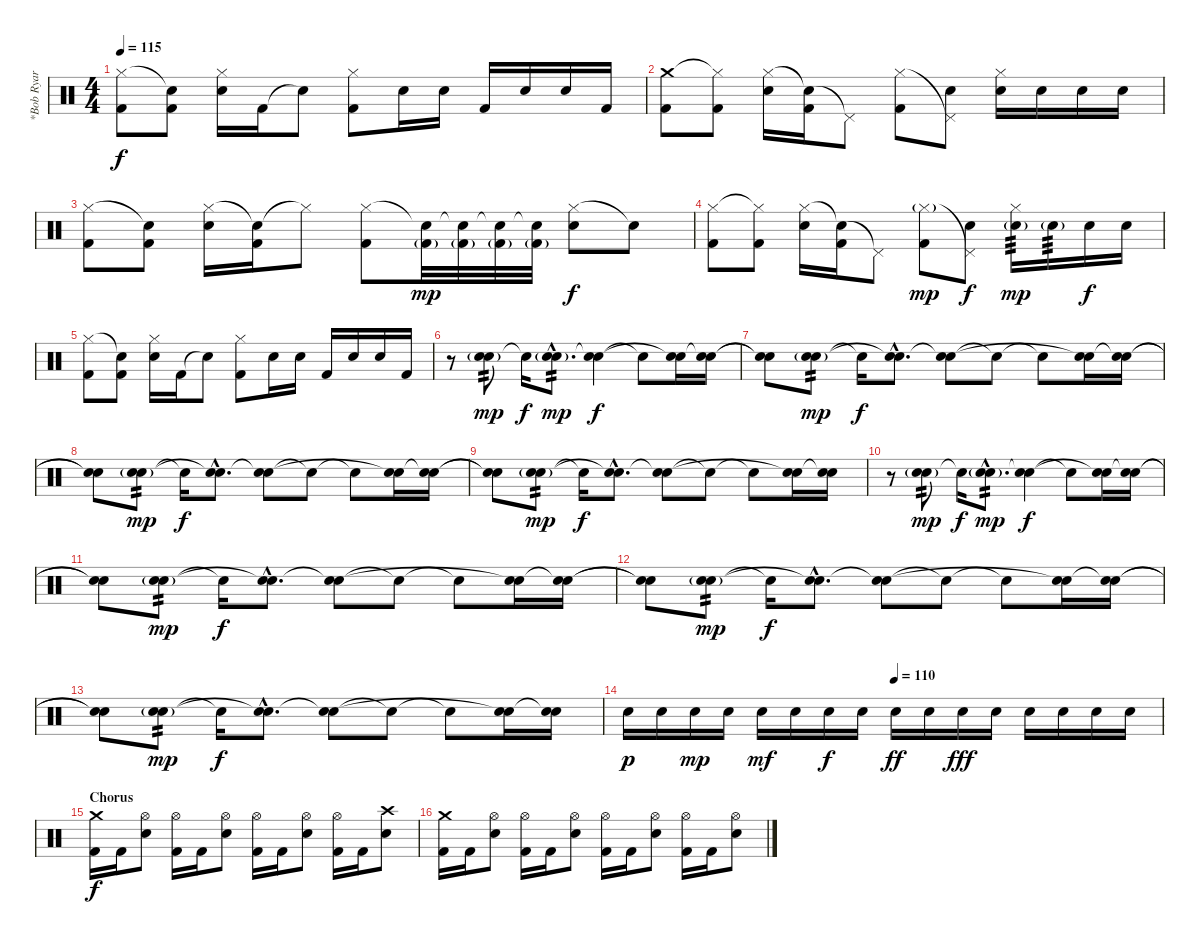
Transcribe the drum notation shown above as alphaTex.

\track ("*Bob Ryar (Drums)" "*Bob Ryar ") {instrument percussion}
\staff {score}
\articulation defaults
\ts (4 4)
\tempo 115
\clef neutral
\ks c
("Hi-Hat (closed)" "Kick (hit) 2").8{dy f} ("Snare (hit)"{t} "Kick (hit) 2").8 ("Hi-Hat (closed)" "Electric Snare (hit)").16 "Kick (hit) 2".16 "Snare (hit)"{t}.8 ("Hi-Hat (closed)" "Kick (hit) 2").8 "Electric Snare (hit)".16 "Electric Snare (hit)".16 "Kick (hit) 2".16 "Electric Snare (hit)".16 "Electric Snare (hit)".16 "Kick (hit) 2".16 |
("Crash medium (hit)" "Kick (hit) 2").8 ("Hi-Hat (closed)"{t} "Kick (hit) 2").8 ("Hi-Hat (closed)" "Electric Snare (hit)").16 ("Snare (hit)"{t} "Kick (hit) 2").16 "Pedal Hi-Hat (hit)"{t}.8 ("Hi-Hat (closed)" "Kick (hit) 2").8 ("Pedal Hi-Hat (hit)"{t} "Electric Snare (hit)").8 ("Hi-Hat (closed)" "Electric Snare (hit)").16 "Electric Snare (hit)".16 "Electric Snare (hit)".16 "Electric Snare (hit)".16 |
("Hi-Hat (closed)" "Kick (hit) 2").8 ("Snare (hit)"{t} "Kick (hit) 2").8 ("Hi-Hat (closed)" "Electric Snare (hit)").16 ("Snare (hit)"{t} "Kick (hit) 2").16 "Hi-Hat (closed)"{t}.8 ("Hi-Hat (closed)" "Kick (hit) 2").8 ("Snare (hit)"{t} "Kick (hit) 2"{g}).32{dy mp} ("Snare (hit)"{t} "Kick (hit) 2"{g}).32 ("Snare (hit)"{t} "Kick (hit) 2"{g}).32 ("Snare (hit)"{t} "Kick (hit) 2"{g}).32 ("Hi-Hat (closed)" "Electric Snare (hit)").8{dy f} "Snare (hit)"{t}.8 |
("Hi-Hat (closed)" "Kick (hit) 2").8 ("Hi-Hat (closed)"{t} "Kick (hit) 2").8 ("Hi-Hat (closed)" "Electric Snare (hit)").16 ("Snare (hit)"{t} "Kick (hit) 2").16 "Pedal Hi-Hat (hit)"{t}.8 ("Hi-Hat (closed)"{g} "Kick (hit) 2").8{dy mp} ("Pedal Hi-Hat (hit)"{t} "Electric Snare (hit)").8{dy f} ("Hi-Hat (closed)" "Electric Snare (hit)"{g}).16{tp 3 dy mp} "Electric Snare (hit)"{g}.16{tp 3} "Electric Snare (hit)".16{dy f} "Electric Snare (hit)".16 |
("Hi-Hat (closed)" "Kick (hit) 2").8 ("Snare (hit)"{t} "Kick (hit) 2").8 ("Hi-Hat (closed)" "Electric Snare (hit)").16 "Kick (hit) 2".16 "Snare (hit)"{t}.8 ("Hi-Hat (closed)" "Kick (hit) 2").8 "Electric Snare (hit)".16 "Electric Snare (hit)".16 "Kick (hit) 2".16 "Electric Snare (hit)".16 "Electric Snare (hit)".16 "Kick (hit) 2".16 |
r.8 ("Electric Snare (hit)" "Electric Snare (hit)"{g}).8{tp 2 dy mp} "Snare (hit)"{t}.16{dy f} ("Electric Snare (hit)"{hac} "Electric Snare (hit)"{g hac}).8{d tp 2 dy mp} ("Electric Snare (hit)" "Snare (hit)"{t}).4{dy f} "Snare (hit)"{t}.8 ("Electric Snare (hit)" "Snare (hit)"{t}).16 ("Electric Snare (hit)" "Electric Snare (hit)"{t}).16 |
("Electric Snare (hit)"{t} "Snare (hit)"{t}).8 ("Electric Snare (hit)" "Electric Snare (hit)"{g}).8{tp 2 dy mp} "Snare (hit)"{t}.16{dy f} ("Electric Snare (hit)"{hac} "Snare (hit)"{hac t}).8{d} ("Electric Snare (hit)" "Snare (hit)"{t}).8 "Snare (hit)"{t}.8 "Snare (hit)"{t}.8 ("Electric Snare (hit)" "Snare (hit)"{t}).16 ("Electric Snare (hit)" "Snare (hit)"{t}).16 |
("Electric Snare (hit)"{t} "Snare (hit)"{t}).8 ("Electric Snare (hit)" "Electric Snare (hit)"{g}).8{tp 2 dy mp} "Snare (hit)"{t}.16{dy f} ("Electric Snare (hit)"{hac} "Snare (hit)"{hac t}).8{d} ("Electric Snare (hit)" "Snare (hit)"{t}).8 "Snare (hit)"{t}.8 "Snare (hit)"{t}.8 ("Electric Snare (hit)" "Snare (hit)"{t}).16 ("Electric Snare (hit)" "Snare (hit)"{t}).16 |
("Electric Snare (hit)"{t} "Snare (hit)"{t}).8 ("Electric Snare (hit)" "Electric Snare (hit)"{g}).8{tp 2 dy mp} "Snare (hit)"{t}.16{dy f} ("Electric Snare (hit)"{hac} "Snare (hit)"{hac t}).8{d} ("Electric Snare (hit)" "Snare (hit)"{t}).8 "Snare (hit)"{t}.8 "Snare (hit)"{t}.8 ("Electric Snare (hit)" "Snare (hit)"{t}).16 ("Electric Snare (hit)" "Snare (hit)"{t}).16 |
r.8 ("Electric Snare (hit)" "Electric Snare (hit)"{g}).8{tp 2 dy mp} "Snare (hit)"{t}.16{dy f} ("Electric Snare (hit)"{hac} "Electric Snare (hit)"{g hac}).8{d tp 2 dy mp} ("Electric Snare (hit)" "Snare (hit)"{t}).4{dy f} "Snare (hit)"{t}.8 ("Electric Snare (hit)" "Snare (hit)"{t}).16 ("Electric Snare (hit)" "Electric Snare (hit)"{t}).16 |
("Electric Snare (hit)"{t} "Snare (hit)"{t}).8 ("Electric Snare (hit)" "Electric Snare (hit)"{g}).8{tp 2 dy mp} "Snare (hit)"{t}.16{dy f} ("Electric Snare (hit)"{hac} "Snare (hit)"{hac t}).8{d} ("Electric Snare (hit)" "Snare (hit)"{t}).8 "Snare (hit)"{t}.8 "Snare (hit)"{t}.8 ("Electric Snare (hit)" "Snare (hit)"{t}).16 ("Electric Snare (hit)" "Snare (hit)"{t}).16 |
("Electric Snare (hit)"{t} "Snare (hit)"{t}).8 ("Electric Snare (hit)" "Electric Snare (hit)"{g}).8{tp 2 dy mp} "Snare (hit)"{t}.16{dy f} ("Electric Snare (hit)"{hac} "Snare (hit)"{hac t}).8{d} ("Electric Snare (hit)" "Snare (hit)"{t}).8 "Snare (hit)"{t}.8 "Snare (hit)"{t}.8 ("Electric Snare (hit)" "Snare (hit)"{t}).16 ("Electric Snare (hit)" "Snare (hit)"{t}).16 |
("Electric Snare (hit)"{t} "Snare (hit)"{t}).8 ("Electric Snare (hit)" "Electric Snare (hit)"{g}).8{tp 2 dy mp} "Snare (hit)"{t}.16{dy f} ("Electric Snare (hit)"{hac} "Snare (hit)"{hac t}).8{d} ("Electric Snare (hit)" "Snare (hit)"{t}).8 "Snare (hit)"{t}.8 "Snare (hit)"{t}.8 ("Electric Snare (hit)" "Snare (hit)"{t}).16 ("Electric Snare (hit)" "Snare (hit)"{t}).16 |
\tempo (110 0.5)
"Electric Snare (hit)".16{dy p} "Electric Snare (hit)".16 "Electric Snare (hit)".16{dy mp} "Electric Snare (hit)".16 "Electric Snare (hit)".16{dy mf} "Electric Snare (hit)".16 "Electric Snare (hit)".16{dy f} "Electric Snare (hit)".16 "Electric Snare (hit)".16{dy ff} "Electric Snare (hit)".16 "Electric Snare (hit)".16{dy fff} "Electric Snare (hit)".16 "Electric Snare (hit)".16 "Electric Snare (hit)".16 "Electric Snare (hit)".16 "Electric Snare (hit)".16 |
\section ("" "Chorus")
("Crash medium (hit)" "Kick (hit) 2").16{dy f} "Kick (hit) 2".16 ("Hi-Hat (open)" "Electric Snare (hit)").8 ("Hi-Hat (open)" "Kick (hit) 2").16 "Kick (hit) 2".16 ("Hi-Hat (open)" "Electric Snare (hit)").8 ("Hi-Hat (open)" "Kick (hit) 2").16 "Kick (hit) 2".16 ("Hi-Hat (open)" "Electric Snare (hit)").8 ("Hi-Hat (open)" "Kick (hit) 2").16 "Kick (hit) 2".16 ("Crash high (hit)" "Electric Snare (hit)").8 |
("Crash medium (hit)" "Kick (hit) 2").16 "Kick (hit) 2".16 ("Hi-Hat (open)" "Electric Snare (hit)").8 ("Hi-Hat (open)" "Kick (hit) 2").16 "Kick (hit) 2".16 ("Hi-Hat (open)" "Electric Snare (hit)").8 ("Hi-Hat (open)" "Kick (hit) 2").16 "Kick (hit) 2".16 ("Hi-Hat (open)" "Electric Snare (hit)").8 ("Hi-Hat (open)" "Kick (hit) 2").16 "Kick (hit) 2".16 ("Hi-Hat (open)" "Electric Snare (hit)").8
